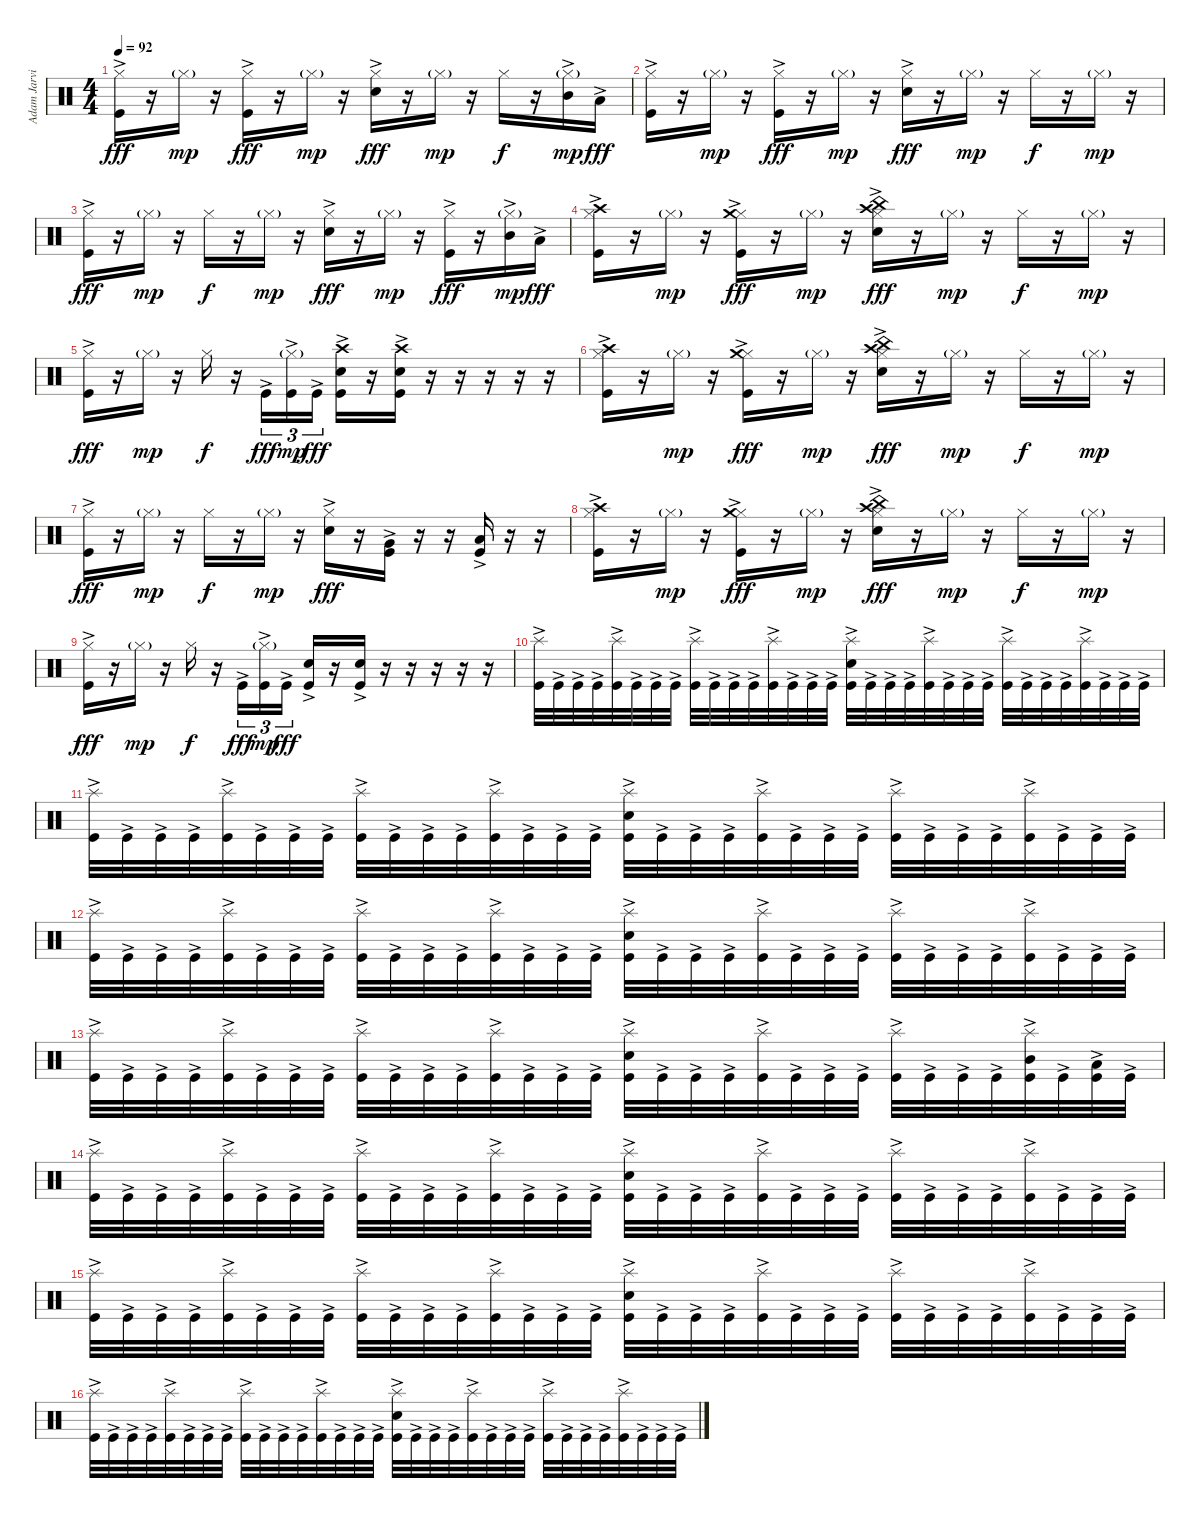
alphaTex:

\track ("Adam Jarvis - Drums" "Adam Jarvi") {instrument percussion}
\staff {score}
\articulation defaults
\ts (4 4)
\tempo 92
\clef neutral
\ks c
("Kick (hit)"{ac} "Hi-Hat (closed)").16{dy fff} r.16 "Hi-Hat (closed)"{g}.16{dy mp} r.16 ("Kick (hit)"{ac} "Hi-Hat (closed)").16{dy fff} r.16 "Hi-Hat (closed)"{g}.16{dy mp} r.16 ("Electric Snare (hit)"{ac} "Hi-Hat (closed)").16{dy fff} r.16 "Hi-Hat (closed)"{g}.16{dy mp} r.16 "Hi-Hat (closed)".16{dy f} r.16 ("Mid Tom (hit)"{ac} "Hi-Hat (closed)"{g}).16{dy mp} "Low Tom (hit)"{ac}.16{dy fff} |
("Kick (hit)"{ac} "Hi-Hat (closed)").16 r.16 "Hi-Hat (closed)"{g}.16{dy mp} r.16 ("Kick (hit)"{ac} "Hi-Hat (closed)").16{dy fff} r.16 "Hi-Hat (closed)"{g}.16{dy mp} r.16 ("Electric Snare (hit)"{ac} "Hi-Hat (closed)").16{dy fff} r.16 "Hi-Hat (closed)"{g}.16{dy mp} r.16 "Hi-Hat (closed)".16{dy f} r.16 "Hi-Hat (closed)"{g}.16{dy mp} r.16 |
("Kick (hit)"{ac} "Hi-Hat (closed)").16{dy fff} r.16 "Hi-Hat (closed)"{g}.16{dy mp} r.16 "Hi-Hat (closed)".16{dy f} r.16 "Hi-Hat (closed)"{g}.16{dy mp} r.16 ("Electric Snare (hit)"{ac} "Hi-Hat (closed)").16{dy fff} r.16 "Hi-Hat (closed)"{g}.16{dy mp} r.16 ("Kick (hit)"{ac} "Hi-Hat (closed)").16{dy fff} r.16 ("Mid Tom (hit)"{ac} "Hi-Hat (closed)"{g}).16{dy mp} "Low Tom (hit)"{ac}.16{dy fff} |
("Kick (hit)"{ac} "Hi-Hat (closed)" "Crash high (hit)"{ac}).16 r.16 "Hi-Hat (closed)"{g}.16{dy mp} r.16 ("Kick (hit)"{ac} "Hi-Hat (closed)" "Crash medium (hit)"{ac}).16{dy fff} r.16 "Hi-Hat (closed)"{g}.16{dy mp} r.16 ("Electric Snare (hit)"{ac} "Hi-Hat (closed)" "Crash high (hit)"{ac} "China (hit)"{ac}).16{dy fff} r.16 "Hi-Hat (closed)"{g}.16{dy mp} r.16 "Hi-Hat (closed)".16{dy f} r.16 "Hi-Hat (closed)"{g}.16{dy mp} r.16 |
("Kick (hit)"{ac} "Hi-Hat (closed)").16{dy fff} r.16 "Hi-Hat (closed)"{g}.16{dy mp} r.16 "Hi-Hat (closed)".16{dy f} r.16 "Kick (hit)"{ac}.16{tu (3 2) dy fff} ("Kick (hit)"{ac} "Hi-Hat (closed)"{g}).16{tu (3 2) dy mp} "Kick (hit)"{ac}.16{tu (3 2) dy fff} ("Kick (hit)"{ac} "Electric Snare (hit)"{ac} "Crash high (hit)"{ac}).16 r.16 ("Kick (hit)"{ac} "Electric Snare (hit)"{ac} "Crash high (hit)"{ac}).16 r.16 r.16{volume 0} r.16 r.16 r.16 |
("Kick (hit)"{ac} "Hi-Hat (closed)" "Crash high (hit)"{ac}).16{volume 16} r.16 "Hi-Hat (closed)"{g}.16{dy mp} r.16 ("Kick (hit)"{ac} "Hi-Hat (closed)" "Crash medium (hit)"{ac}).16{dy fff} r.16 "Hi-Hat (closed)"{g}.16{dy mp} r.16 ("Electric Snare (hit)"{ac} "Hi-Hat (closed)" "Crash high (hit)"{ac} "China (hit)"{ac}).16{dy fff} r.16 "Hi-Hat (closed)"{g}.16{dy mp} r.16 "Hi-Hat (closed)".16{dy f} r.16 "Hi-Hat (closed)"{g}.16{dy mp} r.16 |
("Kick (hit)"{ac} "Hi-Hat (closed)").16{dy fff} r.16 "Hi-Hat (closed)"{g}.16{dy mp} r.16 "Hi-Hat (closed)".16{dy f} r.16 "Hi-Hat (closed)"{g}.16{dy mp} r.16 ("Electric Snare (hit)"{ac} "Hi-Hat (closed)").16{dy fff} r.16 ("Kick (hit)"{ac} "Very Low Tom (hit)"{ac}).16 r.16 r.16 ("Kick (hit)"{ac} "Low Floor Tom (hit)"{ac}).16 r.16 r.16 |
("Kick (hit)"{ac} "Hi-Hat (closed)" "Crash high (hit)"{ac}).16 r.16 "Hi-Hat (closed)"{g}.16{dy mp} r.16 ("Kick (hit)"{ac} "Hi-Hat (closed)" "Crash medium (hit)"{ac}).16{dy fff} r.16 "Hi-Hat (closed)"{g}.16{dy mp} r.16 ("Electric Snare (hit)"{ac} "Hi-Hat (closed)" "Crash high (hit)"{ac} "China (hit)"{ac}).16{dy fff} r.16 "Hi-Hat (closed)"{g}.16{dy mp} r.16 "Hi-Hat (closed)".16{dy f} r.16 "Hi-Hat (closed)"{g}.16{dy mp} r.16 |
("Kick (hit)"{ac} "Hi-Hat (closed)").16{dy fff} r.16 "Hi-Hat (closed)"{g}.16{dy mp} r.16 "Hi-Hat (closed)".16{dy f} r.16 "Kick (hit)"{ac}.16{tu (3 2) dy fff} ("Kick (hit)"{ac} "Hi-Hat (closed)"{g}).16{tu (3 2) dy mp} "Kick (hit)"{ac}.16{tu (3 2) dy fff} ("Kick (hit)"{ac} "Electric Snare (hit)"{ac}).16 r.16 ("Kick (hit)"{ac} "Electric Snare (hit)"{ac}).16 r.16 r.16{volume 0} r.16 r.16 r.16 |
("Kick (hit)"{ac} "Splash (hit)"{ac}).32{volume 16} "Kick (hit)"{ac}.32 "Kick (hit)"{ac}.32 "Kick (hit)"{ac}.32 ("Kick (hit)"{ac} "Splash (hit)"{ac}).32 "Kick (hit)"{ac}.32 "Kick (hit)"{ac}.32 "Kick (hit)"{ac}.32 ("Kick (hit)"{ac} "Splash (hit)"{ac}).32 "Kick (hit)"{ac}.32 "Kick (hit)"{ac}.32 "Kick (hit)"{ac}.32 ("Kick (hit)"{ac} "Splash (hit)"{ac}).32 "Kick (hit)"{ac}.32 "Kick (hit)"{ac}.32 "Kick (hit)"{ac}.32 ("Kick (hit)"{ac} "Electric Snare (hit)"{ac} "Splash (hit)"{ac}).32 "Kick (hit)"{ac}.32 "Kick (hit)"{ac}.32 "Kick (hit)"{ac}.32 ("Kick (hit)"{ac} "Splash (hit)"{ac}).32 "Kick (hit)"{ac}.32 "Kick (hit)"{ac}.32 "Kick (hit)"{ac}.32 ("Kick (hit)"{ac} "Splash (hit)"{ac}).32 "Kick (hit)"{ac}.32 "Kick (hit)"{ac}.32 "Kick (hit)"{ac}.32 ("Kick (hit)"{ac} "Splash (hit)"{ac}).32 "Kick (hit)"{ac}.32 "Kick (hit)"{ac}.32 "Kick (hit)"{ac}.32 |
("Kick (hit)"{ac} "Splash (hit)"{ac}).32 "Kick (hit)"{ac}.32 "Kick (hit)"{ac}.32 "Kick (hit)"{ac}.32 ("Kick (hit)"{ac} "Splash (hit)"{ac}).32 "Kick (hit)"{ac}.32 "Kick (hit)"{ac}.32 "Kick (hit)"{ac}.32 ("Kick (hit)"{ac} "Splash (hit)"{ac}).32 "Kick (hit)"{ac}.32 "Kick (hit)"{ac}.32 "Kick (hit)"{ac}.32 ("Kick (hit)"{ac} "Splash (hit)"{ac}).32 "Kick (hit)"{ac}.32 "Kick (hit)"{ac}.32 "Kick (hit)"{ac}.32 ("Kick (hit)"{ac} "Electric Snare (hit)"{ac} "Splash (hit)"{ac}).32 "Kick (hit)"{ac}.32 "Kick (hit)"{ac}.32 "Kick (hit)"{ac}.32 ("Kick (hit)"{ac} "Splash (hit)"{ac}).32 "Kick (hit)"{ac}.32 "Kick (hit)"{ac}.32 "Kick (hit)"{ac}.32 ("Kick (hit)"{ac} "Splash (hit)"{ac}).32 "Kick (hit)"{ac}.32 "Kick (hit)"{ac}.32 "Kick (hit)"{ac}.32 ("Kick (hit)"{ac} "Splash (hit)"{ac}).32 "Kick (hit)"{ac}.32 "Kick (hit)"{ac}.32 "Kick (hit)"{ac}.32 |
("Kick (hit)"{ac} "Splash (hit)"{ac}).32 "Kick (hit)"{ac}.32 "Kick (hit)"{ac}.32 "Kick (hit)"{ac}.32 ("Kick (hit)"{ac} "Splash (hit)"{ac}).32 "Kick (hit)"{ac}.32 "Kick (hit)"{ac}.32 "Kick (hit)"{ac}.32 ("Kick (hit)"{ac} "Splash (hit)"{ac}).32 "Kick (hit)"{ac}.32 "Kick (hit)"{ac}.32 "Kick (hit)"{ac}.32 ("Kick (hit)"{ac} "Splash (hit)"{ac}).32 "Kick (hit)"{ac}.32 "Kick (hit)"{ac}.32 "Kick (hit)"{ac}.32 ("Kick (hit)"{ac} "Electric Snare (hit)"{ac} "Splash (hit)"{ac}).32 "Kick (hit)"{ac}.32 "Kick (hit)"{ac}.32 "Kick (hit)"{ac}.32 ("Kick (hit)"{ac} "Splash (hit)"{ac}).32 "Kick (hit)"{ac}.32 "Kick (hit)"{ac}.32 "Kick (hit)"{ac}.32 ("Kick (hit)"{ac} "Splash (hit)"{ac}).32 "Kick (hit)"{ac}.32 "Kick (hit)"{ac}.32 "Kick (hit)"{ac}.32 ("Kick (hit)"{ac} "Splash (hit)"{ac}).32 "Kick (hit)"{ac}.32 "Kick (hit)"{ac}.32 "Kick (hit)"{ac}.32 |
("Kick (hit)"{ac} "Splash (hit)"{ac}).32 "Kick (hit)"{ac}.32 "Kick (hit)"{ac}.32 "Kick (hit)"{ac}.32 ("Kick (hit)"{ac} "Splash (hit)"{ac}).32 "Kick (hit)"{ac}.32 "Kick (hit)"{ac}.32 "Kick (hit)"{ac}.32 ("Kick (hit)"{ac} "Splash (hit)"{ac}).32 "Kick (hit)"{ac}.32 "Kick (hit)"{ac}.32 "Kick (hit)"{ac}.32 ("Kick (hit)"{ac} "Splash (hit)"{ac}).32 "Kick (hit)"{ac}.32 "Kick (hit)"{ac}.32 "Kick (hit)"{ac}.32 ("Kick (hit)"{ac} "Electric Snare (hit)"{ac} "Splash (hit)"{ac}).32 "Kick (hit)"{ac}.32 "Kick (hit)"{ac}.32 "Kick (hit)"{ac}.32 ("Kick (hit)"{ac} "Splash (hit)"{ac}).32 "Kick (hit)"{ac}.32 "Kick (hit)"{ac}.32 "Kick (hit)"{ac}.32 ("Kick (hit)"{ac} "Splash (hit)"{ac}).32 "Kick (hit)"{ac}.32 "Kick (hit)"{ac}.32 "Kick (hit)"{ac}.32 ("Kick (hit)"{ac} "Mid Tom (hit)"{ac} "Splash (hit)"{ac}).32 "Kick (hit)"{ac}.32 ("Kick (hit)"{ac} "Low Tom (hit)"{ac}).32 "Kick (hit)"{ac}.32 |
("Kick (hit)"{ac} "Splash (hit)"{ac}).32 "Kick (hit)"{ac}.32 "Kick (hit)"{ac}.32 "Kick (hit)"{ac}.32 ("Kick (hit)"{ac} "Splash (hit)"{ac}).32 "Kick (hit)"{ac}.32 "Kick (hit)"{ac}.32 "Kick (hit)"{ac}.32 ("Kick (hit)"{ac} "Splash (hit)"{ac}).32 "Kick (hit)"{ac}.32 "Kick (hit)"{ac}.32 "Kick (hit)"{ac}.32 ("Kick (hit)"{ac} "Splash (hit)"{ac}).32 "Kick (hit)"{ac}.32 "Kick (hit)"{ac}.32 "Kick (hit)"{ac}.32 ("Kick (hit)"{ac} "Electric Snare (hit)"{ac} "Splash (hit)"{ac}).32 "Kick (hit)"{ac}.32 "Kick (hit)"{ac}.32 "Kick (hit)"{ac}.32 ("Kick (hit)"{ac} "Splash (hit)"{ac}).32 "Kick (hit)"{ac}.32 "Kick (hit)"{ac}.32 "Kick (hit)"{ac}.32 ("Kick (hit)"{ac} "Splash (hit)"{ac}).32 "Kick (hit)"{ac}.32 "Kick (hit)"{ac}.32 "Kick (hit)"{ac}.32 ("Kick (hit)"{ac} "Splash (hit)"{ac}).32 "Kick (hit)"{ac}.32 "Kick (hit)"{ac}.32 "Kick (hit)"{ac}.32 |
("Kick (hit)"{ac} "Splash (hit)"{ac}).32 "Kick (hit)"{ac}.32 "Kick (hit)"{ac}.32 "Kick (hit)"{ac}.32 ("Kick (hit)"{ac} "Splash (hit)"{ac}).32 "Kick (hit)"{ac}.32 "Kick (hit)"{ac}.32 "Kick (hit)"{ac}.32 ("Kick (hit)"{ac} "Splash (hit)"{ac}).32 "Kick (hit)"{ac}.32 "Kick (hit)"{ac}.32 "Kick (hit)"{ac}.32 ("Kick (hit)"{ac} "Splash (hit)"{ac}).32 "Kick (hit)"{ac}.32 "Kick (hit)"{ac}.32 "Kick (hit)"{ac}.32 ("Kick (hit)"{ac} "Electric Snare (hit)"{ac} "Splash (hit)"{ac}).32 "Kick (hit)"{ac}.32 "Kick (hit)"{ac}.32 "Kick (hit)"{ac}.32 ("Kick (hit)"{ac} "Splash (hit)"{ac}).32 "Kick (hit)"{ac}.32 "Kick (hit)"{ac}.32 "Kick (hit)"{ac}.32 ("Kick (hit)"{ac} "Splash (hit)"{ac}).32 "Kick (hit)"{ac}.32 "Kick (hit)"{ac}.32 "Kick (hit)"{ac}.32 ("Kick (hit)"{ac} "Splash (hit)"{ac}).32 "Kick (hit)"{ac}.32 "Kick (hit)"{ac}.32 "Kick (hit)"{ac}.32 |
("Kick (hit)"{ac} "Splash (hit)"{ac}).32 "Kick (hit)"{ac}.32 "Kick (hit)"{ac}.32 "Kick (hit)"{ac}.32 ("Kick (hit)"{ac} "Splash (hit)"{ac}).32 "Kick (hit)"{ac}.32 "Kick (hit)"{ac}.32 "Kick (hit)"{ac}.32 ("Kick (hit)"{ac} "Splash (hit)"{ac}).32 "Kick (hit)"{ac}.32 "Kick (hit)"{ac}.32 "Kick (hit)"{ac}.32 ("Kick (hit)"{ac} "Splash (hit)"{ac}).32 "Kick (hit)"{ac}.32 "Kick (hit)"{ac}.32 "Kick (hit)"{ac}.32 ("Kick (hit)"{ac} "Electric Snare (hit)"{ac} "Splash (hit)"{ac}).32 "Kick (hit)"{ac}.32 "Kick (hit)"{ac}.32 "Kick (hit)"{ac}.32 ("Kick (hit)"{ac} "Splash (hit)"{ac}).32 "Kick (hit)"{ac}.32 "Kick (hit)"{ac}.32 "Kick (hit)"{ac}.32 ("Kick (hit)"{ac} "Splash (hit)"{ac}).32 "Kick (hit)"{ac}.32 "Kick (hit)"{ac}.32 "Kick (hit)"{ac}.32 ("Kick (hit)"{ac} "Splash (hit)"{ac}).32 "Kick (hit)"{ac}.32 "Kick (hit)"{ac}.32 "Kick (hit)"{ac}.32
